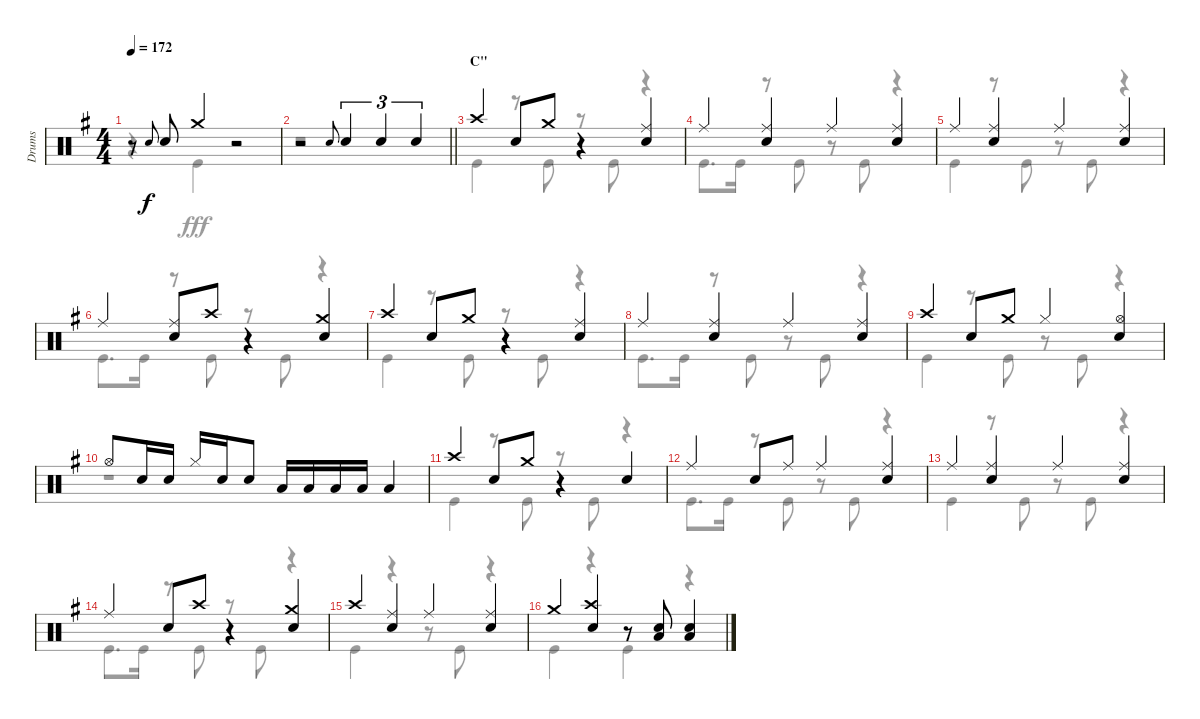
\track ("Drums" "Drums") {instrument percussion}
\staff {score}
\articulation defaults
\voice
\ts (4 4)
\tempo 172
\clef neutral
\ks g
r.8{dy f} "Snare (hit) 2".8{gr onbeat} "Snare (hit) 2".8 "Crash medium (hit)".4 r.2 |
\barLineRight lightlight
r.2 "Snare (hit) 2".8{gr onbeat} "Snare (hit) 2".4{tu (3 2)} "Snare (hit) 2".4{tu (3 2)} "Snare (hit) 2".4{tu (3 2)} |
\section ("" "C\"")
"Crash high (hit)".4 "Snare (hit) 2".8 "Crash medium (hit)".8 r.4 ("Ride (middle)" "Snare (hit) 2").4 |
"Ride (middle)".4 ("Ride (middle)" "Snare (hit) 2").4 "Ride (middle)".4 ("Ride (middle)" "Snare (hit) 2").4 |
"Ride (middle)".4 ("Ride (middle)" "Snare (hit) 2").4 "Ride (middle)".4 ("Ride (middle)" "Snare (hit) 2").4 |
"Ride (middle)".4 ("Ride (middle)" "Snare (hit) 2").8 "Crash high (hit)".8 r.4 ("Crash medium (hit)" "Snare (hit) 2").4 |
"Crash high (hit)".4 "Snare (hit) 2".8 "Crash medium (hit)".8 r.4 ("Ride (middle)" "Snare (hit) 2").4 |
"Ride (middle)".4 ("Ride (middle)" "Snare (hit) 2").4 "Ride (middle)".4 ("Ride (middle)" "Snare (hit) 2").4 |
"Crash high (hit)".4 "Snare (hit) 2".8 "Crash medium (hit)".8 "Hi-Hat (closed)".4 ("Hi-Hat (open)" "Snare (hit) 2").4 |
"Hi-Hat (open)".8 "Snare (hit) 2".16 "Snare (hit) 2".16 "Hi-Hat (closed)".16 "Snare (hit) 2".16 "Snare (hit) 2".8 "Low Tom (hit)".16 "Low Tom (hit)".16 "Low Tom (hit)".16 "Low Tom (hit)".16 "Low Tom (hit)".4 |
"Crash high (hit)".4 "Snare (hit) 2".8 "Crash medium (hit)".8 r.4 "Snare (hit) 2".4 |
"Ride (middle)".4 "Snare (hit) 2".8 "Ride (middle)".8 "Ride (middle)".4 ("Ride (middle)" "Snare (hit) 2").4 |
"Ride (middle)".4 ("Ride (middle)" "Snare (hit) 2").4 "Ride (middle)".4 ("Ride (middle)" "Snare (hit) 2").4 |
"Ride (middle)".4 "Snare (hit) 2".8 "Crash high (hit)".8 r.4 ("Crash medium (hit)" "Snare (hit) 2").4 |
"Crash high (hit)".4 ("Ride (middle)" "Snare (hit) 2").4 "Ride (middle)".4 ("Ride (middle)" "Snare (hit) 2").4 |
"Crash medium (hit)".4 ("Crash high (hit)" "Snare (hit) 2").4 r.8 ("Snare (hit) 2" "Low Tom (hit)").8 ("Snare (hit) 2" "Low Tom (hit)").4
\voice
\clef neutral
\ottava regular
\simile none
\ks g
r.4{dy fff} "Kick (hit)".4 r.2 |
\barLineRight lightlight
r.1 |
"Kick (hit)".4 r.8 "Kick (hit)".8 r.8 "Kick (hit)".8 r.4 |
"Kick (hit)".8{d} "Kick (hit)".16 r.8 "Kick (hit)".8 r.8 "Kick (hit)".8 r.4 |
"Kick (hit)".4 r.8 "Kick (hit)".8 r.8 "Kick (hit)".8 r.4 |
"Kick (hit)".8{d} "Kick (hit)".16 r.8 "Kick (hit)".8 r.8 "Kick (hit)".8 r.4 |
"Kick (hit)".4 r.8 "Kick (hit)".8 r.8 "Kick (hit)".8 r.4 |
"Kick (hit)".8{d} "Kick (hit)".16 r.8 "Kick (hit)".8 r.8 "Kick (hit)".8 r.4 |
"Kick (hit)".4 r.8 "Kick (hit)".8 r.8 "Kick (hit)".8 r.4 |
r.1 |
"Kick (hit)".4 r.8 "Kick (hit)".8 r.8 "Kick (hit)".8 r.4 |
"Kick (hit)".8{d} "Kick (hit)".16 r.8 "Kick (hit)".8 r.8 "Kick (hit)".8 r.4 |
"Kick (hit)".4 r.8 "Kick (hit)".8 r.8 "Kick (hit)".8 r.4 |
"Kick (hit)".8{d} "Kick (hit)".16 r.8 "Kick (hit)".8 r.8 "Kick (hit)".8 r.4 |
"Kick (hit)".4 r.4 r.8 "Kick (hit)".8 r.4 |
"Kick (hit)".4 r.4 "Kick (hit)".4 r.4
